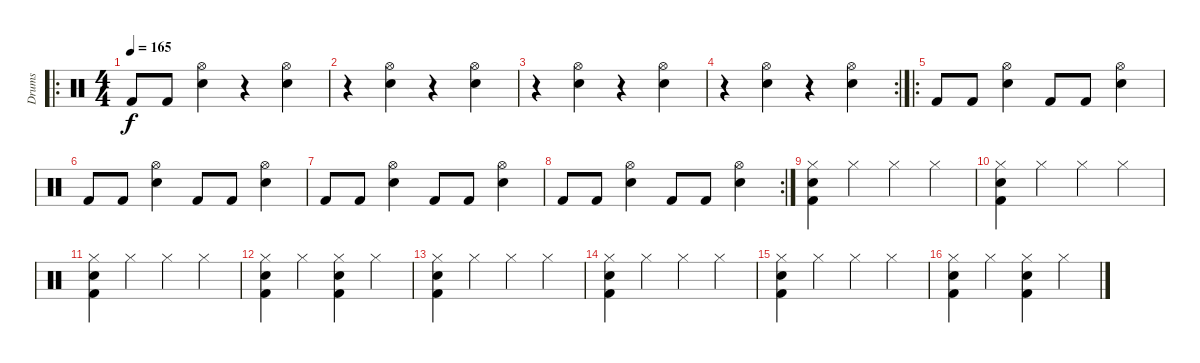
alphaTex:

\track ("Drums" "Drums") {instrument percussion}
\staff {score}
\articulation defaults
\ro
\ts (4 4)
\tempo 165
\clef neutral
\ks c "Kick (hit) 2".8{dy f} "Kick (hit) 2".8
("Snare (hit) 2" "Hi-Hat (open)").4 r.4 ("Snare (hit) 2" "Hi-Hat (open)").4 |
r.4 ("Snare (hit) 2" "Hi-Hat (open)").4 r.4 ("Snare (hit) 2" "Hi-Hat (open)").4 |
r.4 ("Snare (hit) 2" "Hi-Hat (open)").4 r.4 ("Snare (hit) 2" "Hi-Hat (open)").4 |
\rc 2
r.4 ("Snare (hit) 2" "Hi-Hat (open)").4 r.4 ("Snare (hit) 2" "Hi-Hat (open)").4 |
\ro "Kick (hit) 2".8 "Kick (hit) 2".8
("Snare (hit) 2" "Hi-Hat (open)").4 "Kick (hit) 2".8 "Kick (hit) 2".8 ("Snare (hit) 2" "Hi-Hat (open)").4 |
"Kick (hit) 2".8 "Kick (hit) 2".8 ("Snare (hit) 2" "Hi-Hat (open)").4 "Kick (hit) 2".8 "Kick (hit) 2".8 ("Snare (hit) 2" "Hi-Hat (open)").4 |
"Kick (hit) 2".8 "Kick (hit) 2".8 ("Snare (hit) 2" "Hi-Hat (open)").4 "Kick (hit) 2".8 "Kick (hit) 2".8 ("Snare (hit) 2" "Hi-Hat (open)").4 |
\rc 2 "Kick (hit) 2".8 "Kick (hit) 2".8
("Snare (hit) 2" "Hi-Hat (open)").4 "Kick (hit) 2".8 "Kick (hit) 2".8 ("Snare (hit) 2" "Hi-Hat (open)").4 |
("Kick (hit) 2" "Snare (hit) 2" "Hi-Hat (closed)").4 "Hi-Hat (closed)".4 "Hi-Hat (closed)".4 "Hi-Hat (closed)".4 |
("Kick (hit) 2" "Snare (hit) 2" "Hi-Hat (closed)").4 "Hi-Hat (closed)".4 "Hi-Hat (closed)".4 "Hi-Hat (closed)".4 |
("Kick (hit) 2" "Snare (hit) 2" "Hi-Hat (closed)").4 "Hi-Hat (closed)".4 "Hi-Hat (closed)".4 "Hi-Hat (closed)".4 |
("Kick (hit) 2" "Snare (hit) 2" "Hi-Hat (closed)").4 "Hi-Hat (closed)".4 ("Kick (hit) 2" "Snare (hit) 2" "Hi-Hat (closed)").4 "Hi-Hat (closed)".4 |
("Kick (hit) 2" "Snare (hit) 2" "Hi-Hat (closed)").4 "Hi-Hat (closed)".4 "Hi-Hat (closed)".4 "Hi-Hat (closed)".4 |
("Kick (hit) 2" "Snare (hit) 2" "Hi-Hat (closed)").4 "Hi-Hat (closed)".4 "Hi-Hat (closed)".4 "Hi-Hat (closed)".4 |
("Kick (hit) 2" "Snare (hit) 2" "Hi-Hat (closed)").4 "Hi-Hat (closed)".4 "Hi-Hat (closed)".4 "Hi-Hat (closed)".4 |
("Kick (hit) 2" "Snare (hit) 2" "Hi-Hat (closed)").4 "Hi-Hat (closed)".4 ("Kick (hit) 2" "Snare (hit) 2" "Hi-Hat (closed)").4 "Hi-Hat (closed)".4
